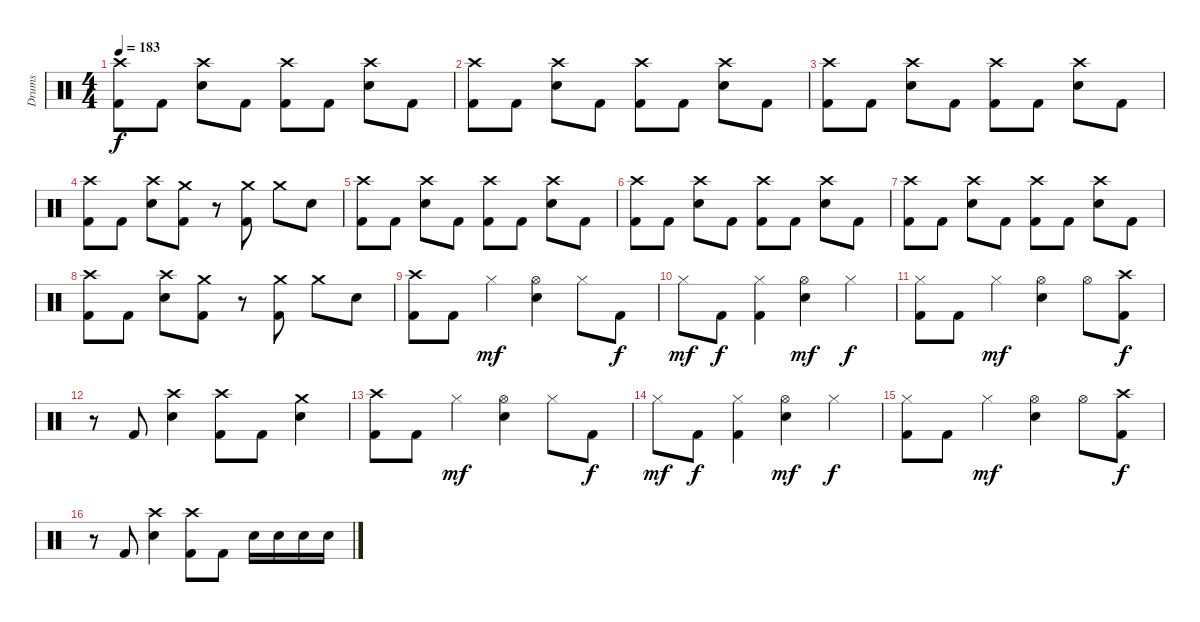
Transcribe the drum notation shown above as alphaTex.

\track ("Drums" "Drums") {instrument percussion}
\staff {score}
\articulation defaults
\ts (4 4)
\tempo 183
\clef neutral
\ks c
("Crash high (hit)" "Kick (hit) 2").8{dy f} "Kick (hit) 2".8 ("Crash high (hit)" "Snare (hit) 2").8 "Kick (hit) 2".8 ("Crash high (hit)" "Kick (hit) 2").8 "Kick (hit) 2".8 ("Crash high (hit)" "Snare (hit) 2").8 "Kick (hit) 2".8 |
("Crash high (hit)" "Kick (hit) 2").8 "Kick (hit) 2".8 ("Crash high (hit)" "Snare (hit) 2").8 "Kick (hit) 2".8 ("Crash high (hit)" "Kick (hit) 2").8 "Kick (hit) 2".8 ("Crash high (hit)" "Snare (hit) 2").8 "Kick (hit) 2".8 |
("Crash high (hit)" "Kick (hit) 2").8 "Kick (hit) 2".8 ("Crash high (hit)" "Snare (hit) 2").8 "Kick (hit) 2".8 ("Crash high (hit)" "Kick (hit) 2").8 "Kick (hit) 2".8 ("Crash high (hit)" "Snare (hit) 2").8 "Kick (hit) 2".8 |
("Crash high (hit)" "Kick (hit) 2").8 "Kick (hit) 2".8 ("Crash high (hit)" "Snare (hit) 2").8 ("Crash medium (hit)" "Kick (hit) 2").8 r.8 ("Crash medium (hit)" "Kick (hit) 2").8 "Crash medium (hit)".8 "Snare (hit) 2".8 |
("Crash high (hit)" "Kick (hit) 2").8 "Kick (hit) 2".8 ("Crash high (hit)" "Snare (hit) 2").8 "Kick (hit) 2".8 ("Crash high (hit)" "Kick (hit) 2").8 "Kick (hit) 2".8 ("Crash high (hit)" "Snare (hit) 2").8 "Kick (hit) 2".8 |
("Crash high (hit)" "Kick (hit) 2").8 "Kick (hit) 2".8 ("Crash high (hit)" "Snare (hit) 2").8 "Kick (hit) 2".8 ("Crash high (hit)" "Kick (hit) 2").8 "Kick (hit) 2".8 ("Crash high (hit)" "Snare (hit) 2").8 "Kick (hit) 2".8 |
("Crash high (hit)" "Kick (hit) 2").8 "Kick (hit) 2".8 ("Crash high (hit)" "Snare (hit) 2").8 "Kick (hit) 2".8 ("Crash high (hit)" "Kick (hit) 2").8 "Kick (hit) 2".8 ("Crash high (hit)" "Snare (hit) 2").8 "Kick (hit) 2".8 |
("Crash high (hit)" "Kick (hit) 2").8 "Kick (hit) 2".8 ("Crash high (hit)" "Snare (hit) 2").8 ("Crash medium (hit)" "Kick (hit) 2").8 r.8 ("Crash medium (hit)" "Kick (hit) 2").8 "Crash medium (hit)".8 "Snare (hit) 2".8 |
("Crash high (hit)" "Kick (hit) 2").8 "Kick (hit) 2".8 "Hi-Hat (closed)".4{dy mf} ("Hi-Hat (open)" "Snare (hit) 2").4 "Hi-Hat (closed)".8 "Kick (hit) 2".8{dy f} |
"Hi-Hat (closed)".8{dy mf} "Kick (hit) 2".8{dy f} ("Hi-Hat (closed)" "Kick (hit) 2").4 ("Hi-Hat (open)" "Snare (hit) 2").4{dy mf} "Hi-Hat (closed)".4{dy f} |
("Hi-Hat (closed)" "Kick (hit) 2").8 "Kick (hit) 2".8 "Hi-Hat (closed)".4{dy mf} ("Hi-Hat (open)" "Snare (hit) 2").4 "Hi-Hat (open)".8 ("Crash high (hit)" "Kick (hit) 2").8{dy f} |
r.8 "Kick (hit) 2".8 ("Crash high (hit)" "Snare (hit) 2").4 ("Crash high (hit)" "Kick (hit) 2").8 "Kick (hit) 2".8 ("Crash medium (hit)" "Snare (hit) 2").4 |
("Crash high (hit)" "Kick (hit) 2").8 "Kick (hit) 2".8 "Hi-Hat (closed)".4{dy mf} ("Hi-Hat (open)" "Snare (hit) 2").4 "Hi-Hat (closed)".8 "Kick (hit) 2".8{dy f} |
"Hi-Hat (closed)".8{dy mf} "Kick (hit) 2".8{dy f} ("Hi-Hat (closed)" "Kick (hit) 2").4 ("Hi-Hat (open)" "Snare (hit) 2").4{dy mf} "Hi-Hat (closed)".4{dy f} |
("Hi-Hat (closed)" "Kick (hit) 2").8 "Kick (hit) 2".8 "Hi-Hat (closed)".4{dy mf} ("Hi-Hat (open)" "Snare (hit) 2").4 "Hi-Hat (open)".8 ("Crash high (hit)" "Kick (hit) 2").8{dy f} |
r.8 "Kick (hit) 2".8 ("Crash high (hit)" "Snare (hit) 2").4 ("Crash high (hit)" "Kick (hit) 2").8 "Kick (hit) 2".8 "Snare (hit) 2".16 "Snare (hit) 2".16 "Snare (hit) 2".16 "Snare (hit) 2".16
